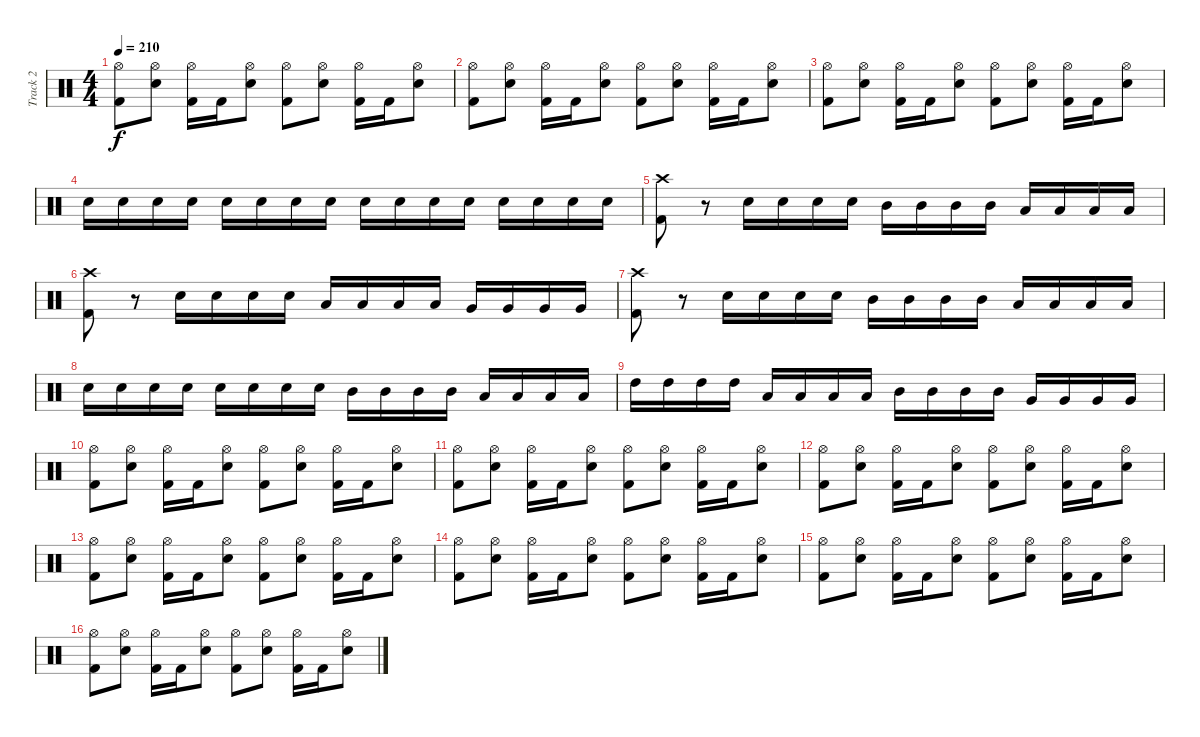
\track ("Track 2" "Track 2") {instrument percussion}
\staff {score}
\articulation defaults
\ts (4 4)
\tempo 210
\clef neutral
\ks c
("Hi-Hat (open)" "Kick (hit) 2").8{dy f} ("Hi-Hat (open)" "Snare (hit) 2").8 ("Hi-Hat (open)" "Kick (hit) 2").16 "Kick (hit) 2".16 ("Hi-Hat (open)" "Snare (hit) 2").8 ("Hi-Hat (open)" "Kick (hit) 2").8 ("Hi-Hat (open)" "Snare (hit) 2").8 ("Hi-Hat (open)" "Kick (hit) 2").16 "Kick (hit) 2".16 ("Hi-Hat (open)" "Snare (hit) 2").8 |
("Hi-Hat (open)" "Kick (hit) 2").8 ("Hi-Hat (open)" "Snare (hit) 2").8 ("Hi-Hat (open)" "Kick (hit) 2").16 "Kick (hit) 2".16 ("Hi-Hat (open)" "Snare (hit) 2").8 ("Hi-Hat (open)" "Kick (hit) 2").8 ("Hi-Hat (open)" "Snare (hit) 2").8 ("Hi-Hat (open)" "Kick (hit) 2").16 "Kick (hit) 2".16 ("Hi-Hat (open)" "Snare (hit) 2").8 |
("Hi-Hat (open)" "Kick (hit) 2").8 ("Hi-Hat (open)" "Snare (hit) 2").8 ("Hi-Hat (open)" "Kick (hit) 2").16 "Kick (hit) 2".16 ("Hi-Hat (open)" "Snare (hit) 2").8 ("Hi-Hat (open)" "Kick (hit) 2").8 ("Hi-Hat (open)" "Snare (hit) 2").8 ("Hi-Hat (open)" "Kick (hit) 2").16 "Kick (hit) 2".16 ("Hi-Hat (open)" "Snare (hit) 2").8 |
"Snare (hit) 2".16 "Snare (hit) 2".16 "Snare (hit) 2".16 "Snare (hit) 2".16 "Snare (hit) 2".16 "Snare (hit) 2".16 "Snare (hit) 2".16 "Snare (hit) 2".16 "Snare (hit) 2".16 "Snare (hit) 2".16 "Snare (hit) 2".16 "Snare (hit) 2".16 "Snare (hit) 2".16 "Snare (hit) 2".16 "Snare (hit) 2".16 "Snare (hit) 2".16 |
("Crash high (hit)" "Kick (hit) 2").8 r.8 "Snare (hit) 2".16 "Snare (hit) 2".16 "Snare (hit) 2".16 "Snare (hit) 2".16 "Mid Tom (hit)".16 "Mid Tom (hit)".16 "Mid Tom (hit)".16 "Mid Tom (hit)".16 "Low Tom (hit)".16 "Low Tom (hit)".16 "Low Tom (hit)".16 "Low Tom (hit)".16 |
("Crash high (hit)" "Kick (hit) 2").8 r.8 "Snare (hit) 2".16 "Snare (hit) 2".16 "Snare (hit) 2".16 "Snare (hit) 2".16 "Low Tom (hit)".16 "Low Tom (hit)".16 "Low Tom (hit)".16 "Low Tom (hit)".16 "Very Low Tom (hit)".16 "Very Low Tom (hit)".16 "Very Low Tom (hit)".16 "Very Low Tom (hit)".16 |
("Crash high (hit)" "Kick (hit) 2").8 r.8 "Snare (hit) 2".16 "Snare (hit) 2".16 "Snare (hit) 2".16 "Snare (hit) 2".16 "Mid Tom (hit)".16 "Mid Tom (hit)".16 "Mid Tom (hit)".16 "Mid Tom (hit)".16 "Low Tom (hit)".16 "Low Tom (hit)".16 "Low Tom (hit)".16 "Low Tom (hit)".16 |
"Snare (hit) 2".16 "Snare (hit) 2".16 "Snare (hit) 2".16 "Snare (hit) 2".16 "Snare (hit) 2".16 "Snare (hit) 2".16 "Snare (hit) 2".16 "Snare (hit) 2".16 "Mid Tom (hit)".16 "Mid Tom (hit)".16 "Mid Tom (hit)".16 "Mid Tom (hit)".16 "Low Tom (hit)".16 "Low Tom (hit)".16 "Low Tom (hit)".16 "Low Tom (hit)".16 |
"High Tom (hit)".16 "High Tom (hit)".16 "High Tom (hit)".16 "High Tom (hit)".16 "Low Tom (hit)".16 "Low Tom (hit)".16 "Low Tom (hit)".16 "Low Tom (hit)".16 "Mid Tom (hit)".16 "Mid Tom (hit)".16 "Mid Tom (hit)".16 "Mid Tom (hit)".16 "Very Low Tom (hit)".16 "Very Low Tom (hit)".16 "Very Low Tom (hit)".16 "Very Low Tom (hit)".16 |
("Hi-Hat (open)" "Kick (hit) 2").8 ("Hi-Hat (open)" "Snare (hit) 2").8 ("Hi-Hat (open)" "Kick (hit) 2").16 "Kick (hit) 2".16 ("Hi-Hat (open)" "Snare (hit) 2").8 ("Hi-Hat (open)" "Kick (hit) 2").8 ("Hi-Hat (open)" "Snare (hit) 2").8 ("Hi-Hat (open)" "Kick (hit) 2").16 "Kick (hit) 2".16 ("Hi-Hat (open)" "Snare (hit) 2").8 |
("Hi-Hat (open)" "Kick (hit) 2").8 ("Hi-Hat (open)" "Snare (hit) 2").8 ("Hi-Hat (open)" "Kick (hit) 2").16 "Kick (hit) 2".16 ("Hi-Hat (open)" "Snare (hit) 2").8 ("Hi-Hat (open)" "Kick (hit) 2").8 ("Hi-Hat (open)" "Snare (hit) 2").8 ("Hi-Hat (open)" "Kick (hit) 2").16 "Kick (hit) 2".16 ("Hi-Hat (open)" "Snare (hit) 2").8 |
("Hi-Hat (open)" "Kick (hit) 2").8 ("Hi-Hat (open)" "Snare (hit) 2").8 ("Hi-Hat (open)" "Kick (hit) 2").16 "Kick (hit) 2".16 ("Hi-Hat (open)" "Snare (hit) 2").8 ("Hi-Hat (open)" "Kick (hit) 2").8 ("Hi-Hat (open)" "Snare (hit) 2").8 ("Hi-Hat (open)" "Kick (hit) 2").16 "Kick (hit) 2".16 ("Hi-Hat (open)" "Snare (hit) 2").8 |
("Hi-Hat (open)" "Kick (hit) 2").8 ("Hi-Hat (open)" "Snare (hit) 2").8 ("Hi-Hat (open)" "Kick (hit) 2").16 "Kick (hit) 2".16 ("Hi-Hat (open)" "Snare (hit) 2").8 ("Hi-Hat (open)" "Kick (hit) 2").8 ("Hi-Hat (open)" "Snare (hit) 2").8 ("Hi-Hat (open)" "Kick (hit) 2").16 "Kick (hit) 2".16 ("Hi-Hat (open)" "Snare (hit) 2").8 |
("Hi-Hat (open)" "Kick (hit) 2").8 ("Hi-Hat (open)" "Snare (hit) 2").8 ("Hi-Hat (open)" "Kick (hit) 2").16 "Kick (hit) 2".16 ("Hi-Hat (open)" "Snare (hit) 2").8 ("Hi-Hat (open)" "Kick (hit) 2").8 ("Hi-Hat (open)" "Snare (hit) 2").8 ("Hi-Hat (open)" "Kick (hit) 2").16 "Kick (hit) 2".16 ("Hi-Hat (open)" "Snare (hit) 2").8 |
("Hi-Hat (open)" "Kick (hit) 2").8 ("Hi-Hat (open)" "Snare (hit) 2").8 ("Hi-Hat (open)" "Kick (hit) 2").16 "Kick (hit) 2".16 ("Hi-Hat (open)" "Snare (hit) 2").8 ("Hi-Hat (open)" "Kick (hit) 2").8 ("Hi-Hat (open)" "Snare (hit) 2").8 ("Hi-Hat (open)" "Kick (hit) 2").16 "Kick (hit) 2".16 ("Hi-Hat (open)" "Snare (hit) 2").8 |
("Hi-Hat (open)" "Kick (hit) 2").8 ("Hi-Hat (open)" "Snare (hit) 2").8 ("Hi-Hat (open)" "Kick (hit) 2").16 "Kick (hit) 2".16 ("Hi-Hat (open)" "Snare (hit) 2").8 ("Hi-Hat (open)" "Kick (hit) 2").8 ("Hi-Hat (open)" "Snare (hit) 2").8 ("Hi-Hat (open)" "Kick (hit) 2").16 "Kick (hit) 2".16 ("Hi-Hat (open)" "Snare (hit) 2").8
